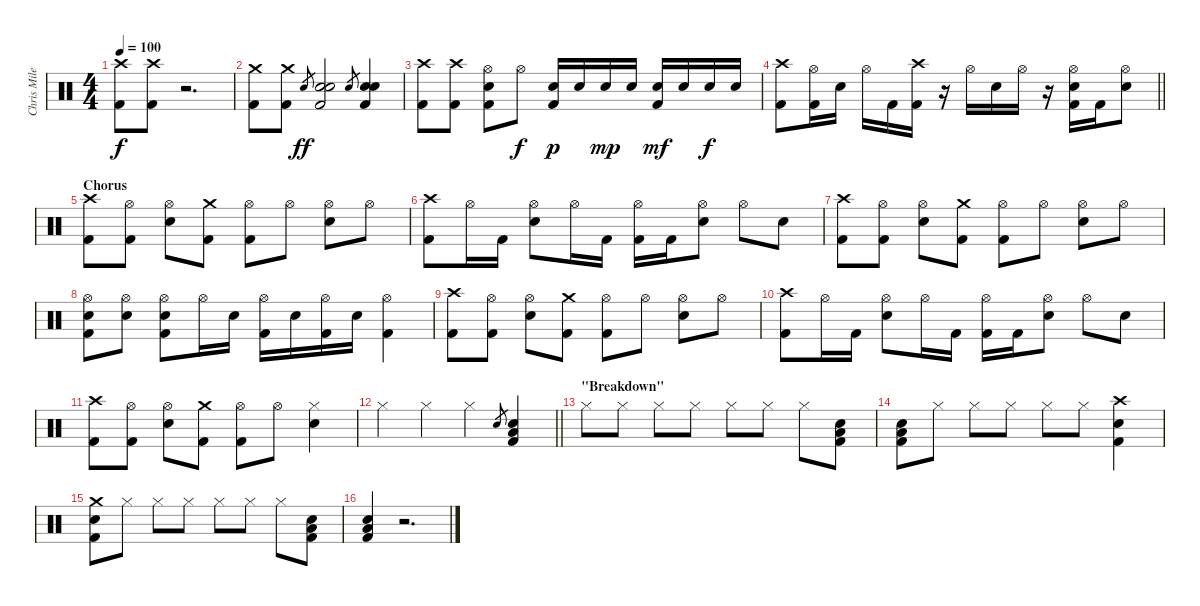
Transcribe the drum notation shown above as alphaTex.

\track ("Chris Mileski" "Chris Mile") {instrument percussion}
\staff {score}
\articulation defaults
\ts (4 4)
\tempo 100
\clef neutral
\ks c
("Crash high (hit)" "Kick (hit) 2").8{dy f} ("Crash high (hit)" "Kick (hit) 2").8 r.2{d} |
("Crash medium (hit)" "Kick (hit) 2").8 ("Crash medium (hit)" "Kick (hit) 2").8 "Electric Snare (hit)".8{gr dy ff} ("Electric Snare (hit)" "Electric Snare (hit)" "Kick (hit) 2").2 "Electric Snare (hit)".8{gr} ("Electric Snare (hit)" "Electric Snare (hit)" "Kick (hit) 2").4 |
("Crash high (hit)" "Kick (hit) 2").8 ("Crash high (hit)" "Kick (hit) 2").8 ("Hi-Hat (open)" "Electric Snare (hit)" "Kick (hit) 2").8 "Hi-Hat (open)".8{dy f} ("Electric Snare (hit)" "Kick (hit) 2").16{dy p} "Electric Snare (hit)".16 "Electric Snare (hit)".16{dy mp} "Electric Snare (hit)".16 ("Electric Snare (hit)" "Kick (hit) 2").16{dy mf} "Electric Snare (hit)".16 "Electric Snare (hit)".16{dy f} "Electric Snare (hit)".16 |
\barLineRight lightlight
("Crash high (hit)" "Kick (hit) 2").8 ("Hi-Hat (open)" "Kick (hit) 2").16 "Electric Snare (hit)".16 "Hi-Hat (open)".16 "Kick (hit) 2".16 ("Crash high (hit)" "Kick (hit) 2").16 r.16 "Hi-Hat (open)".16 "Electric Snare (hit)".16 "Hi-Hat (open)".16 r.16 ("Hi-Hat (open)" "Electric Snare (hit)" "Kick (hit) 2").16 "Kick (hit) 2".16 ("Hi-Hat (open)" "Electric Snare (hit)").8 |
\section ("" "Chorus")
("Crash high (hit)" "Kick (hit) 2").8 ("Hi-Hat (open)" "Kick (hit) 2").8 ("Hi-Hat (open)" "Electric Snare (hit)").8 ("Crash medium (hit)" "Kick (hit) 2").8 ("Hi-Hat (open)" "Kick (hit) 2").8 "Hi-Hat (open)".8 ("Hi-Hat (open)" "Electric Snare (hit)").8 "Hi-Hat (open)".8 |
("Crash high (hit)" "Kick (hit) 2").8 "Hi-Hat (open)".16 "Kick (hit) 2".16 ("Hi-Hat (open)" "Electric Snare (hit)").8 "Hi-Hat (open)".16 "Kick (hit) 2".16 ("Hi-Hat (open)" "Kick (hit) 2").16 "Kick (hit) 2".16 ("Hi-Hat (open)" "Electric Snare (hit)").8 "Hi-Hat (open)".8 "Electric Snare (hit)".8 |
("Crash high (hit)" "Kick (hit) 2").8 ("Hi-Hat (open)" "Kick (hit) 2").8 ("Hi-Hat (open)" "Electric Snare (hit)").8 ("Crash medium (hit)" "Kick (hit) 2").8 ("Hi-Hat (open)" "Kick (hit) 2").8 "Hi-Hat (open)".8 ("Hi-Hat (open)" "Electric Snare (hit)").8 "Hi-Hat (open)".8 |
("Hi-Hat (open)" "Electric Snare (hit)" "Kick (hit) 2").8 ("Hi-Hat (open)" "Electric Snare (hit)").8 ("Hi-Hat (open)" "Electric Snare (hit)" "Kick (hit) 2").8 "Hi-Hat (open)".16 "Electric Snare (hit)".16 ("Hi-Hat (open)" "Kick (hit) 2").16 "Electric Snare (hit)".16 ("Hi-Hat (open)" "Kick (hit) 2").16 "Electric Snare (hit)".16 ("Hi-Hat (open)" "Kick (hit) 2").4 |
("Crash high (hit)" "Kick (hit) 2").8 ("Hi-Hat (open)" "Kick (hit) 2").8 ("Hi-Hat (open)" "Electric Snare (hit)").8 ("Crash medium (hit)" "Kick (hit) 2").8 ("Hi-Hat (open)" "Kick (hit) 2").8 "Hi-Hat (open)".8 ("Hi-Hat (open)" "Electric Snare (hit)").8 "Hi-Hat (open)".8 |
("Crash high (hit)" "Kick (hit) 2").8 "Hi-Hat (open)".16 "Kick (hit) 2".16 ("Hi-Hat (open)" "Electric Snare (hit)").8 "Hi-Hat (open)".16 "Kick (hit) 2".16 ("Hi-Hat (open)" "Kick (hit) 2").16 "Kick (hit) 2".16 ("Hi-Hat (open)" "Electric Snare (hit)").8 "Hi-Hat (open)".8 "Electric Snare (hit)".8 |
("Crash high (hit)" "Kick (hit) 2").8 ("Hi-Hat (open)" "Kick (hit) 2").8 ("Hi-Hat (open)" "Electric Snare (hit)").8 ("Crash medium (hit)" "Kick (hit) 2").8 ("Hi-Hat (open)" "Kick (hit) 2").8 "Hi-Hat (open)".8 ("Hi-Hat (closed)" "Electric Snare (hit)").4 |
\barLineRight lightlight "Hi-Hat (closed)".4 "Hi-Hat (closed)".4 "Hi-Hat (closed)".4 "Electric Snare (hit)".8{gr}
("Electric Snare (hit)" "Low Tom (hit)" "Kick (hit) 2").4 |
\section ("" "\"Breakdown\"")
"Hi-Hat (closed)".8 "Hi-Hat (closed)".8 "Hi-Hat (closed)".8 "Hi-Hat (closed)".8 "Hi-Hat (closed)".8 "Hi-Hat (closed)".8 "Hi-Hat (closed)".8 ("Electric Snare (hit)" "Low Tom (hit)" "Kick (hit) 2").8 |
("Electric Snare (hit)" "Low Tom (hit)" "Kick (hit) 2").8 "Hi-Hat (closed)".8 "Hi-Hat (closed)".8 "Hi-Hat (closed)".8 "Hi-Hat (closed)".8 "Hi-Hat (closed)".8 ("Crash high (hit)" "Electric Snare (hit)" "Kick (hit) 2").4 |
("Crash medium (hit)" "Electric Snare (hit)" "Kick (hit) 2").8 "Hi-Hat (closed)".8 "Hi-Hat (closed)".8 "Hi-Hat (closed)".8 "Hi-Hat (closed)".8 "Hi-Hat (closed)".8 "Hi-Hat (closed)".8 ("Electric Snare (hit)" "Low Tom (hit)" "Kick (hit) 2").8 |
("Electric Snare (hit)" "Low Tom (hit)" "Kick (hit) 2").4 r.2{d}
